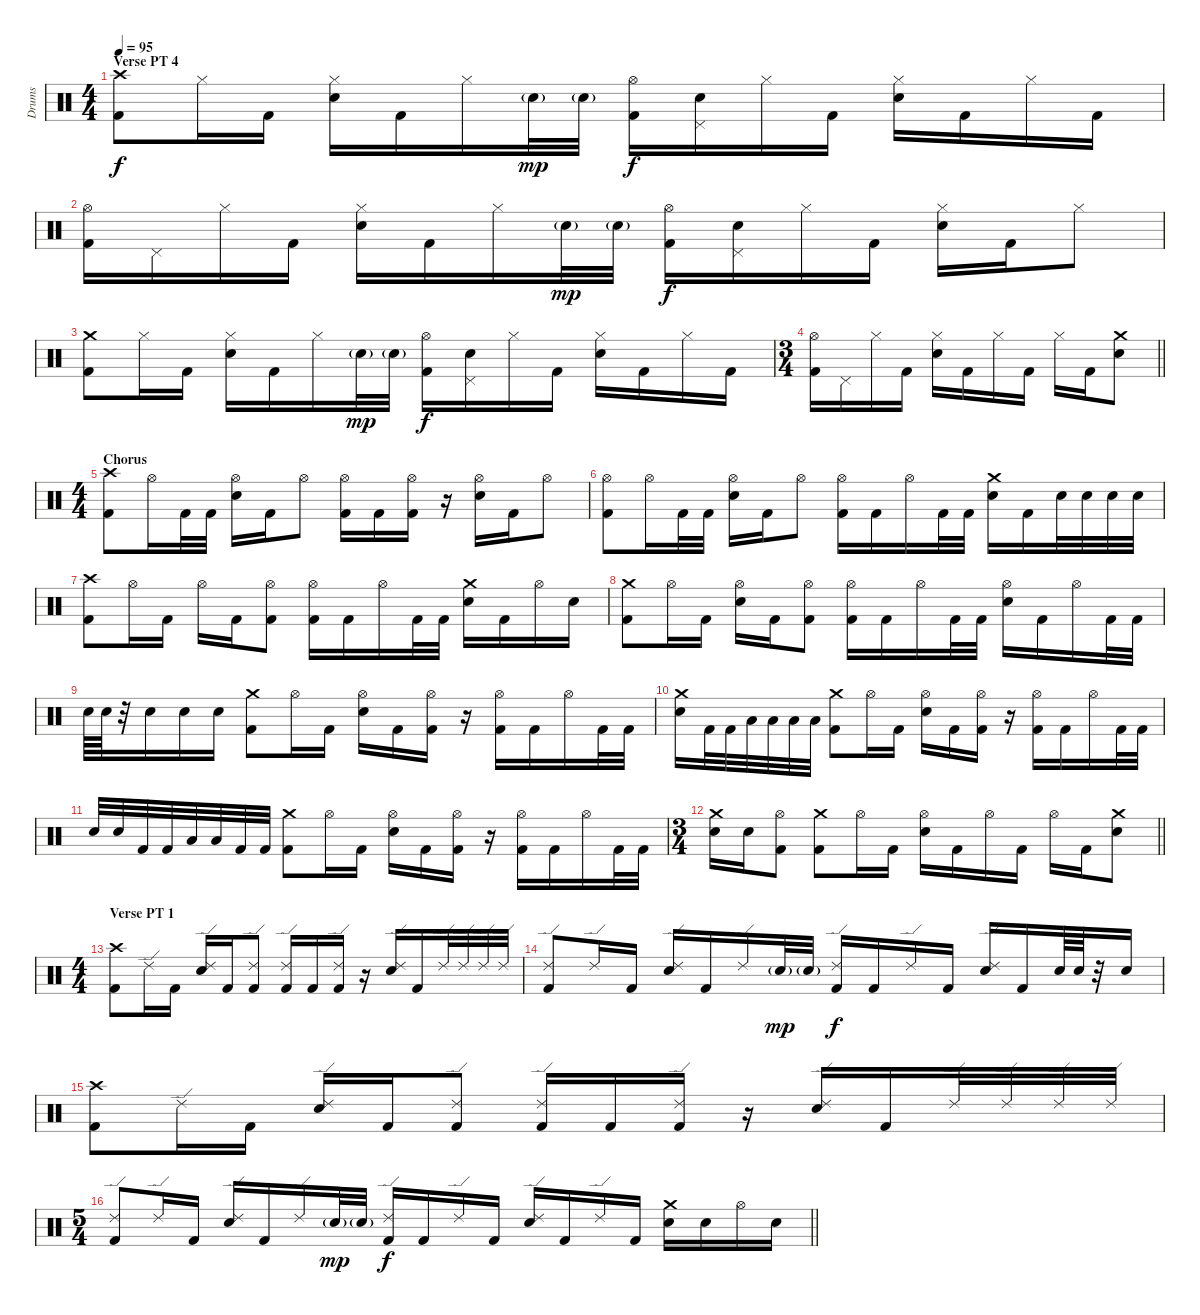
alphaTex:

\track ("Drums" "Drums") {instrument percussion}
\staff {score}
\articulation defaults
\ts (4 4)
\section ("" "Verse PT 4")
\tempo 95
\clef neutral
\ks c
("Crash high (hit)" "Kick (hit) 2").8{dy f} "Hi-Hat (closed)".16 "Kick (hit) 2".16 ("Hi-Hat (closed)" "Electric Snare (hit)").16 "Kick (hit) 2".16 "Hi-Hat (closed)".16 "Electric Snare (hit)"{g}.32{dy mp} "Electric Snare (hit)"{g}.32 ("Hi-Hat (open)" "Kick (hit) 2").16{dy f} ("Electric Snare (hit)" "Pedal Hi-Hat (hit)").16 "Hi-Hat (closed)".16 "Kick (hit) 2".16 ("Hi-Hat (closed)" "Electric Snare (hit)").16 "Kick (hit) 2".16 "Hi-Hat (closed)".16 "Kick (hit) 2".16 |
("Hi-Hat (open)" "Kick (hit) 2").16 "Pedal Hi-Hat (hit)".16 "Hi-Hat (closed)".16 "Kick (hit) 2".16 ("Hi-Hat (closed)" "Electric Snare (hit)").16 "Kick (hit) 2".16 "Hi-Hat (closed)".16 "Electric Snare (hit)"{g}.32{dy mp} "Electric Snare (hit)"{g}.32 ("Hi-Hat (open)" "Kick (hit) 2").16{dy f} ("Electric Snare (hit)" "Pedal Hi-Hat (hit)").16 "Hi-Hat (closed)".16 "Kick (hit) 2".16 ("Hi-Hat (closed)" "Electric Snare (hit)").16 "Kick (hit) 2".16 "Hi-Hat (closed)".8 |
("Crash medium (hit)" "Kick (hit) 2").8 "Hi-Hat (closed)".16 "Kick (hit) 2".16 ("Hi-Hat (closed)" "Electric Snare (hit)").16 "Kick (hit) 2".16 "Hi-Hat (closed)".16 "Electric Snare (hit)"{g}.32{dy mp} "Electric Snare (hit)"{g}.32 ("Hi-Hat (open)" "Kick (hit) 2").16{dy f} ("Electric Snare (hit)" "Pedal Hi-Hat (hit)").16 "Hi-Hat (closed)".16 "Kick (hit) 2".16 ("Hi-Hat (closed)" "Electric Snare (hit)").16 "Kick (hit) 2".16 "Hi-Hat (closed)".16 "Kick (hit) 2".16 |
\ts (3 4)
\barLineRight lightlight
("Hi-Hat (open)" "Kick (hit) 2").16 "Pedal Hi-Hat (hit)".16 "Hi-Hat (closed)".16 "Kick (hit) 2".16 ("Hi-Hat (closed)" "Electric Snare (hit)").16 "Kick (hit) 2".16 "Hi-Hat (closed)".16 "Kick (hit) 2".16 "Hi-Hat (closed)".16 "Kick (hit) 2".16 ("Crash medium (hit)" "Electric Snare (hit)").8 |
\ts (4 4)
\section ("" "Chorus")
("Crash high (hit)" "Kick (hit) 2").8 "Hi-Hat (open)".16 "Kick (hit) 2".32 "Kick (hit) 2".32 ("Hi-Hat (open)" "Electric Snare (hit)").16 "Kick (hit) 2".16 "Hi-Hat (open)".8 ("Hi-Hat (open)" "Kick (hit) 2").16 "Kick (hit) 2".16 ("Hi-Hat (open)" "Kick (hit) 2").16 r.16 ("Hi-Hat (open)" "Electric Snare (hit)").16 "Kick (hit) 2".16 "Hi-Hat (open)".8 |
("Hi-Hat (open)" "Kick (hit) 2").8 "Hi-Hat (open)".16 "Kick (hit) 2".32 "Kick (hit) 2".32 ("Hi-Hat (open)" "Electric Snare (hit)").16 "Kick (hit) 2".16 "Hi-Hat (open)".8 ("Hi-Hat (open)" "Kick (hit) 2").16 "Kick (hit) 2".16 "Hi-Hat (open)".16 "Kick (hit) 2".32 "Kick (hit) 2".32 ("Crash medium (hit)" "Electric Snare (hit)").16 "Kick (hit) 2".16 "Electric Snare (hit)".32 "Electric Snare (hit)".32 "Electric Snare (hit)".32 "Electric Snare (hit)".32 |
("Crash high (hit)" "Kick (hit) 2").8 "Hi-Hat (open)".16 "Kick (hit) 2".16 "Hi-Hat (open)".16 "Kick (hit) 2".16 ("Hi-Hat (open)" "Kick (hit) 2").8 ("Hi-Hat (open)" "Kick (hit) 2").16 "Kick (hit) 2".16 "Hi-Hat (open)".16 "Kick (hit) 2".32 "Kick (hit) 2".32 ("Crash medium (hit)" "Electric Snare (hit)").16 "Kick (hit) 2".16 "Hi-Hat (open)".16 "Electric Snare (hit)".16 |
("Crash medium (hit)" "Kick (hit) 2").8 "Hi-Hat (open)".16 "Kick (hit) 2".16 ("Hi-Hat (open)" "Electric Snare (hit)").16 "Kick (hit) 2".16 ("Hi-Hat (open)" "Kick (hit) 2").8 ("Hi-Hat (open)" "Kick (hit) 2").16 "Kick (hit) 2".16 "Hi-Hat (open)".16 "Kick (hit) 2".32 "Kick (hit) 2".32 ("Hi-Hat (open)" "Electric Snare (hit)").16 "Kick (hit) 2".16 "Hi-Hat (open)".16 "Kick (hit) 2".32 "Kick (hit) 2".32 |
"Electric Snare (hit)".64 "Electric Snare (hit)".64 r.32 "Electric Snare (hit)".16 "Electric Snare (hit)".16 "Electric Snare (hit)".16 ("Crash medium (hit)" "Kick (hit) 2").8 "Hi-Hat (open)".16 "Kick (hit) 2".16 ("Hi-Hat (open)" "Electric Snare (hit)").16 "Kick (hit) 2".16 ("Hi-Hat (open)" "Kick (hit) 2").16 r.16 ("Hi-Hat (open)" "Kick (hit) 2").16 "Kick (hit) 2".16 "Hi-Hat (open)".16 "Kick (hit) 2".32 "Kick (hit) 2".32 |
("Crash medium (hit)" "Electric Snare (hit)").16 "Kick (hit) 2".32 "Kick (hit) 2".32 "Low Tom (hit)".32 "Low Tom (hit)".32 "Low Tom (hit)".32 "Low Tom (hit)".32 ("Crash medium (hit)" "Kick (hit) 2").8 "Hi-Hat (open)".16 "Kick (hit) 2".16 ("Hi-Hat (open)" "Electric Snare (hit)").16 "Kick (hit) 2".16 ("Hi-Hat (open)" "Kick (hit) 2").16 r.16 ("Hi-Hat (open)" "Kick (hit) 2").16 "Kick (hit) 2".16 "Hi-Hat (open)".16 "Kick (hit) 2".32 "Kick (hit) 2".32 |
"Electric Snare (hit)".32 "Electric Snare (hit)".32 "Kick (hit) 2".32 "Kick (hit) 2".32 "Low Tom (hit)".32 "Low Tom (hit)".32 "Kick (hit) 2".32 "Kick (hit) 2".32 ("Crash medium (hit)" "Kick (hit) 2").8 "Hi-Hat (open)".16 "Kick (hit) 2".16 ("Hi-Hat (open)" "Electric Snare (hit)").16 "Kick (hit) 2".16 ("Hi-Hat (open)" "Kick (hit) 2").16 r.16 ("Hi-Hat (open)" "Kick (hit) 2").16 "Kick (hit) 2".16 "Hi-Hat (open)".16 "Kick (hit) 2".32 "Kick (hit) 2".32 |
\ts (3 4)
\barLineRight lightlight
("Crash medium (hit)" "Electric Snare (hit)").16 "Electric Snare (hit)".16 ("Hi-Hat (open)" "Kick (hit) 2").8 ("Crash medium (hit)" "Kick (hit) 2").8 "Hi-Hat (open)".16 "Kick (hit) 2".16 ("Hi-Hat (open)" "Electric Snare (hit)").16 "Kick (hit) 2".16 "Hi-Hat (open)".16 "Kick (hit) 2".16 "Hi-Hat (open)".16 "Kick (hit) 2".16 ("Crash medium (hit)" "Electric Snare (hit)").8 |
\ts (4 4)
\section ("" "Verse PT 1")
("Crash high (hit)" "Kick (hit) 2").8 "Ride (edge) 2".16 "Kick (hit) 2".16 ("Ride (edge) 2" "Electric Snare (hit)").16 "Kick (hit) 2".16 ("Ride (edge) 2" "Kick (hit) 2").8 ("Ride (edge) 2" "Kick (hit) 2").16 "Kick (hit) 2".16 ("Ride (edge) 2" "Kick (hit) 2").16 r.16 ("Ride (edge) 2" "Electric Snare (hit)").16 "Kick (hit) 2".16 "Ride (edge) 2".32 "Ride (edge) 2".32 "Ride (edge) 2".32 "Ride (edge) 2".32 |
("Ride (edge) 2" "Kick (hit) 2").8 "Ride (edge) 2".16 "Kick (hit) 2".16 ("Ride (edge) 2" "Electric Snare (hit)").16 "Kick (hit) 2".16 "Ride (edge) 2".16 "Electric Snare (hit)"{g}.32{dy mp} "Electric Snare (hit)"{g}.32 ("Ride (edge) 2" "Kick (hit) 2").16{dy f} "Kick (hit) 2".16 "Ride (edge) 2".16 "Kick (hit) 2".16 ("Ride (edge) 2" "Electric Snare (hit)").16 "Kick (hit) 2".16 "Electric Snare (hit)".64 "Electric Snare (hit)".64 r.32 "Electric Snare (hit)".16 |
("Crash high (hit)" "Kick (hit) 2").8 "Ride (edge) 2".16 "Kick (hit) 2".16 ("Ride (edge) 2" "Electric Snare (hit)").16 "Kick (hit) 2".16 ("Ride (edge) 2" "Kick (hit) 2").8 ("Ride (edge) 2" "Kick (hit) 2").16 "Kick (hit) 2".16 ("Ride (edge) 2" "Kick (hit) 2").16 r.16 ("Ride (edge) 2" "Electric Snare (hit)").16 "Kick (hit) 2".16 "Ride (edge) 2".32 "Ride (edge) 2".32 "Ride (edge) 2".32 "Ride (edge) 2".32 |
\ts (5 4)
\barLineRight lightlight
("Ride (edge) 2" "Kick (hit) 2").8 "Ride (edge) 2".16 "Kick (hit) 2".16 ("Ride (edge) 2" "Electric Snare (hit)").16 "Kick (hit) 2".16 "Ride (edge) 2".16 "Electric Snare (hit)"{g}.32{dy mp} "Electric Snare (hit)"{g}.32 ("Ride (edge) 2" "Kick (hit) 2").16{dy f} "Kick (hit) 2".16 "Ride (edge) 2".16 "Kick (hit) 2".16 ("Ride (edge) 2" "Electric Snare (hit)").16 "Kick (hit) 2".16 "Ride (edge) 2".16 "Kick (hit) 2".16 ("Crash medium (hit)" "Electric Snare (hit)").16 "Electric Snare (hit)".16 "Hi-Hat (open)".16 "Electric Snare (hit)".16
